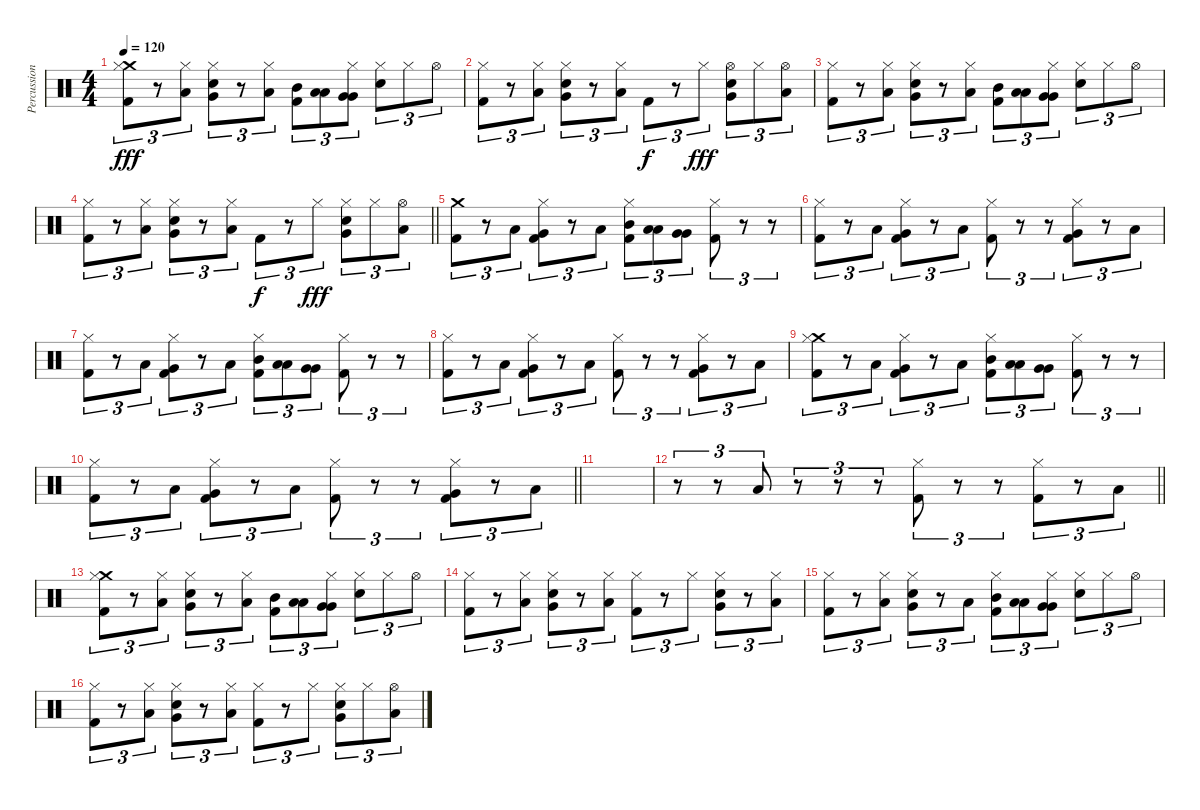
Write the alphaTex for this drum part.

\track ("Percussion" "Percussion") {instrument percussion}
\staff {score}
\articulation defaults
\ts (4 4)
\tempo 120
\clef neutral
\ks c
("Crash medium (hit)" "Hi-Hat (closed)" "Kick (hit) 2").8{tu (3 2) dy fff} r.8{tu (3 2)} ("Low Tom (hit)" "Hi-Hat (closed)").8{tu (3 2)} ("Very Low Tom (hit)" "Hi-Hat (closed)" "Snare (hit) 2").8{tu (3 2)} r.8{tu (3 2)} ("Low Tom (hit)" "Hi-Hat (closed)").8{tu (3 2)} ("Mid Tom (hit)" "Kick (hit) 2").8{tu (3 2)} ("Low Tom (hit)" "Low Tom (hit)").8{tu (3 2)} ("Very Low Tom (hit)" "Very Low Tom (hit)" "Hi-Hat (closed)").8{tu (3 2)} ("Hi-Hat (closed)" "Snare (hit) 2").8{tu (3 2)} "Hi-Hat (closed)".8{tu (3 2)} "Hi-Hat (open)".8{tu (3 2)} |
("Hi-Hat (closed)" "Kick (hit) 2").8{tu (3 2)} r.8{tu (3 2)} ("Low Tom (hit)" "Hi-Hat (closed)").8{tu (3 2)} ("Very Low Tom (hit)" "Hi-Hat (closed)" "Snare (hit) 2").8{tu (3 2)} r.8{tu (3 2)} ("Low Tom (hit)" "Hi-Hat (closed)").8{tu (3 2)} "Kick (hit) 2".8{tu (3 2) dy f} r.8{tu (3 2)} "Hi-Hat (closed)".8{tu (3 2) dy fff} ("Very Low Tom (hit)" "Hi-Hat (open)" "Snare (hit) 2").8{tu (3 2)} "Hi-Hat (closed)".8{tu (3 2)} ("Low Tom (hit)" "Hi-Hat (open)").8{tu (3 2)} |
("Hi-Hat (closed)" "Kick (hit) 2").8{tu (3 2)} r.8{tu (3 2)} ("Low Tom (hit)" "Hi-Hat (closed)").8{tu (3 2)} ("Very Low Tom (hit)" "Hi-Hat (closed)" "Snare (hit) 2").8{tu (3 2)} r.8{tu (3 2)} ("Low Tom (hit)" "Hi-Hat (closed)").8{tu (3 2)} ("Mid Tom (hit)" "Kick (hit) 2").8{tu (3 2)} ("Low Tom (hit)" "Low Tom (hit)").8{tu (3 2)} ("Very Low Tom (hit)" "Very Low Tom (hit)" "Hi-Hat (closed)").8{tu (3 2)} ("Hi-Hat (closed)" "Snare (hit) 2").8{tu (3 2)} "Hi-Hat (closed)".8{tu (3 2)} "Hi-Hat (open)".8{tu (3 2)} |
\barLineRight lightlight
("Hi-Hat (closed)" "Kick (hit) 2").8{tu (3 2)} r.8{tu (3 2)} ("Low Tom (hit)" "Hi-Hat (closed)").8{tu (3 2)} ("Very Low Tom (hit)" "Hi-Hat (closed)" "Snare (hit) 2").8{tu (3 2)} r.8{tu (3 2)} ("Low Tom (hit)" "Hi-Hat (closed)").8{tu (3 2)} "Kick (hit) 2".8{tu (3 2) dy f} r.8{tu (3 2)} "Hi-Hat (closed)".8{tu (3 2) dy fff} ("Very Low Tom (hit)" "Hi-Hat (closed)" "Snare (hit) 2").8{tu (3 2)} "Hi-Hat (closed)".8{tu (3 2)} ("Low Tom (hit)" "Hi-Hat (open)").8{tu (3 2)} |
\section ("" "")
("Crash medium (hit)" "Kick (hit) 2").8{tu (3 2)} r.8{tu (3 2)} "Low Tom (hit)".8{tu (3 2)} ("Very Low Tom (hit)" "Hi-Hat (closed)" "Kick (hit) 2").8{tu (3 2)} r.8{tu (3 2)} "Low Tom (hit)".8{tu (3 2)} ("Mid Tom (hit)" "Hi-Hat (closed)" "Kick (hit) 2").8{tu (3 2)} ("Low Tom (hit)" "Low Tom (hit)").8{tu (3 2)} ("Very Low Tom (hit)" "Very Low Tom (hit)").8{tu (3 2)} ("Hi-Hat (closed)" "Kick (hit) 2").8{tu (3 2)} r.8{tu (3 2)} r.8{tu (3 2)} |
("Hi-Hat (closed)" "Kick (hit) 2").8{tu (3 2)} r.8{tu (3 2)} "Low Tom (hit)".8{tu (3 2)} ("Very Low Tom (hit)" "Hi-Hat (closed)" "Kick (hit) 2").8{tu (3 2)} r.8{tu (3 2)} "Low Tom (hit)".8{tu (3 2)} ("Hi-Hat (closed)" "Kick (hit) 2").8{tu (3 2)} r.8{tu (3 2)} r.8{tu (3 2)} ("Very Low Tom (hit)" "Hi-Hat (closed)" "Kick (hit) 2").8{tu (3 2)} r.8{tu (3 2)} "Low Tom (hit)".8{tu (3 2)} |
("Hi-Hat (closed)" "Kick (hit) 2").8{tu (3 2)} r.8{tu (3 2)} "Low Tom (hit)".8{tu (3 2)} ("Very Low Tom (hit)" "Hi-Hat (closed)" "Kick (hit) 2").8{tu (3 2)} r.8{tu (3 2)} "Low Tom (hit)".8{tu (3 2)} ("Mid Tom (hit)" "Hi-Hat (closed)" "Kick (hit) 2").8{tu (3 2)} ("Low Tom (hit)" "Low Tom (hit)").8{tu (3 2)} ("Very Low Tom (hit)" "Very Low Tom (hit)").8{tu (3 2)} ("Hi-Hat (closed)" "Kick (hit) 2").8{tu (3 2)} r.8{tu (3 2)} r.8{tu (3 2)} |
("Hi-Hat (closed)" "Kick (hit) 2").8{tu (3 2)} r.8{tu (3 2)} "Low Tom (hit)".8{tu (3 2)} ("Very Low Tom (hit)" "Hi-Hat (closed)" "Kick (hit) 2").8{tu (3 2)} r.8{tu (3 2)} "Low Tom (hit)".8{tu (3 2)} ("Hi-Hat (closed)" "Kick (hit) 2").8{tu (3 2)} r.8{tu (3 2)} r.8{tu (3 2)} ("Very Low Tom (hit)" "Hi-Hat (closed)" "Kick (hit) 2").8{tu (3 2)} r.8{tu (3 2)} "Low Tom (hit)".8{tu (3 2)} |
("Crash medium (hit)" "Hi-Hat (closed)" "Kick (hit) 2").8{tu (3 2)} r.8{tu (3 2)} "Low Tom (hit)".8{tu (3 2)} ("Very Low Tom (hit)" "Hi-Hat (closed)" "Kick (hit) 2").8{tu (3 2)} r.8{tu (3 2)} "Low Tom (hit)".8{tu (3 2)} ("Mid Tom (hit)" "Hi-Hat (closed)" "Kick (hit) 2").8{tu (3 2)} ("Low Tom (hit)" "Low Tom (hit)").8{tu (3 2)} ("Very Low Tom (hit)" "Very Low Tom (hit)").8{tu (3 2)} ("Hi-Hat (closed)" "Kick (hit) 2").8{tu (3 2)} r.8{tu (3 2)} r.8{tu (3 2)} |
\barLineRight lightlight
("Hi-Hat (closed)" "Kick (hit) 2").8{tu (3 2)} r.8{tu (3 2)} "Low Tom (hit)".8{tu (3 2)} ("Very Low Tom (hit)" "Hi-Hat (closed)" "Kick (hit) 2").8{tu (3 2)} r.8{tu (3 2)} "Low Tom (hit)".8{tu (3 2)} ("Hi-Hat (closed)" "Kick (hit) 2").8{tu (3 2)} r.8{tu (3 2)} r.8{tu (3 2)} ("Very Low Tom (hit)" "Hi-Hat (closed)" "Kick (hit) 2").8{tu (3 2)} r.8{tu (3 2)} "Low Tom (hit)".8{tu (3 2)} |
\section ("" "")
|
\barLineRight lightlight
r.8{tu (3 2)} r.8{tu (3 2)} "Low Tom (hit)".8{tu (3 2)} r.8{tu (3 2)} r.8{tu (3 2)} r.8{tu (3 2)} ("Hi-Hat (closed)" "Kick (hit) 2").8{tu (3 2)} r.8{tu (3 2)} r.8{tu (3 2)} ("Hi-Hat (closed)" "Kick (hit) 2").8{tu (3 2)} r.8{tu (3 2)} "Low Tom (hit)".8{tu (3 2)} |
\section ("" "")
("Crash medium (hit)" "Hi-Hat (closed)" "Kick (hit) 2").8{tu (3 2)} r.8{tu (3 2)} ("Low Tom (hit)" "Hi-Hat (closed)").8{tu (3 2)} ("Very Low Tom (hit)" "Hi-Hat (closed)" "Snare (hit) 2").8{tu (3 2)} r.8{tu (3 2)} ("Low Tom (hit)" "Hi-Hat (closed)").8{tu (3 2)} ("Mid Tom (hit)" "Kick (hit) 2").8{tu (3 2)} ("Low Tom (hit)" "Low Tom (hit)").8{tu (3 2)} ("Very Low Tom (hit)" "Very Low Tom (hit)" "Hi-Hat (closed)").8{tu (3 2)} ("Hi-Hat (closed)" "Snare (hit) 2").8{tu (3 2)} "Hi-Hat (closed)".8{tu (3 2)} "Hi-Hat (open)".8{tu (3 2)} |
("Hi-Hat (closed)" "Kick (hit) 2").8{tu (3 2)} r.8{tu (3 2)} ("Low Tom (hit)" "Hi-Hat (closed)").8{tu (3 2)} ("Very Low Tom (hit)" "Hi-Hat (closed)" "Snare (hit) 2").8{tu (3 2)} r.8{tu (3 2)} ("Low Tom (hit)" "Hi-Hat (closed)").8{tu (3 2)} ("Hi-Hat (closed)" "Kick (hit) 2").8{tu (3 2)} r.8{tu (3 2)} "Hi-Hat (closed)".8{tu (3 2)} ("Very Low Tom (hit)" "Hi-Hat (closed)" "Snare (hit) 2").8{tu (3 2)} r.8{tu (3 2)} ("Low Tom (hit)" "Hi-Hat (closed)").8{tu (3 2)} |
("Hi-Hat (closed)" "Kick (hit) 2").8{tu (3 2)} r.8{tu (3 2)} ("Low Tom (hit)" "Hi-Hat (closed)").8{tu (3 2)} ("Very Low Tom (hit)" "Hi-Hat (closed)" "Snare (hit) 2").8{tu (3 2)} r.8{tu (3 2)} "Low Tom (hit)".8{tu (3 2)} ("Mid Tom (hit)" "Hi-Hat (closed)" "Kick (hit) 2").8{tu (3 2)} ("Low Tom (hit)" "Low Tom (hit)").8{tu (3 2)} ("Very Low Tom (hit)" "Very Low Tom (hit)" "Hi-Hat (closed)").8{tu (3 2)} ("Hi-Hat (closed)" "Snare (hit) 2").8{tu (3 2)} "Hi-Hat (closed)".8{tu (3 2)} "Hi-Hat (open)".8{tu (3 2)} |
("Hi-Hat (closed)" "Kick (hit) 2").8{tu (3 2)} r.8{tu (3 2)} ("Low Tom (hit)" "Hi-Hat (closed)").8{tu (3 2)} ("Very Low Tom (hit)" "Hi-Hat (closed)" "Snare (hit) 2").8{tu (3 2)} r.8{tu (3 2)} ("Low Tom (hit)" "Hi-Hat (closed)").8{tu (3 2)} ("Hi-Hat (closed)" "Kick (hit) 2").8{tu (3 2)} r.8{tu (3 2)} "Hi-Hat (closed)".8{tu (3 2)} ("Very Low Tom (hit)" "Hi-Hat (closed)" "Snare (hit) 2").8{tu (3 2)} "Hi-Hat (closed)".8{tu (3 2)} ("Low Tom (hit)" "Hi-Hat (open)").8{tu (3 2)}
